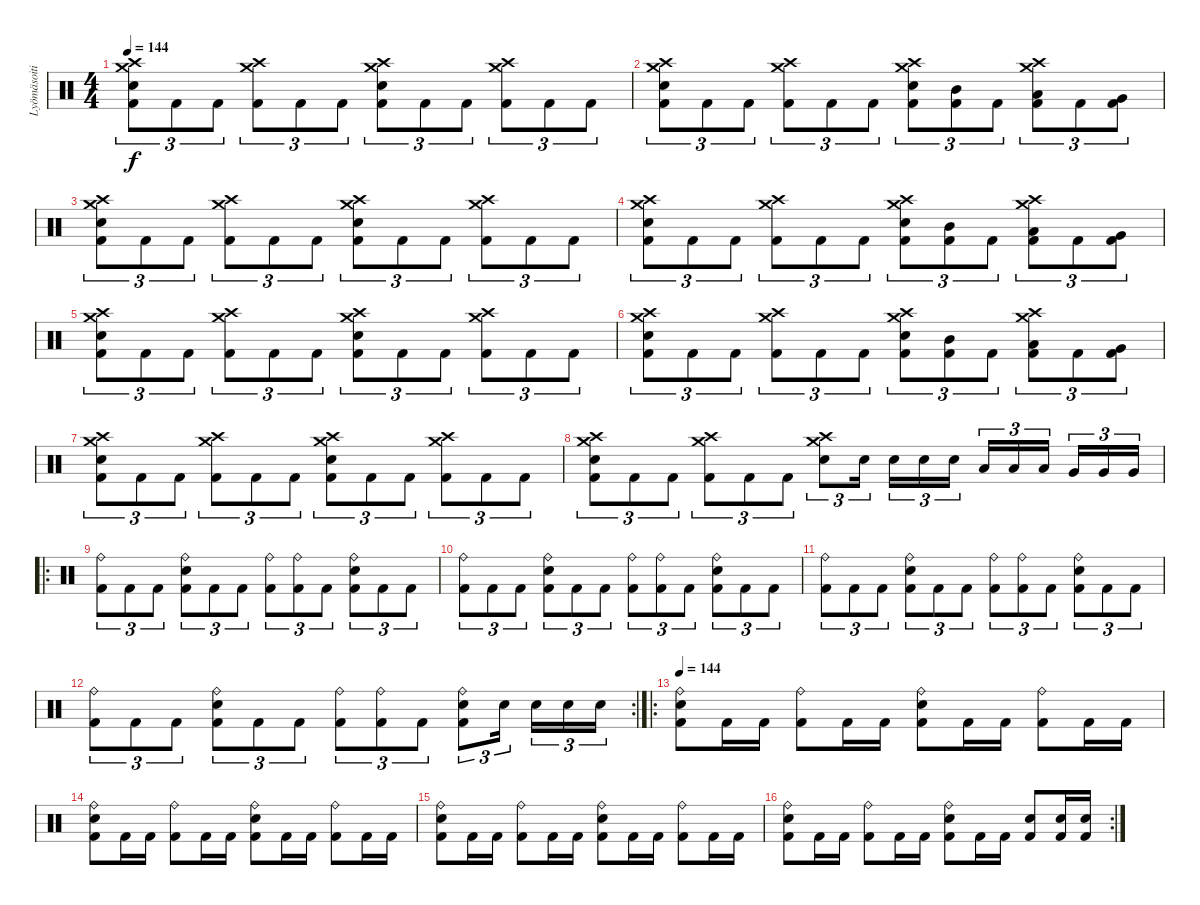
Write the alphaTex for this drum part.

\track ("Lyömäsoitin" "Lyömäsoiti") {instrument percussion}
\staff {score}
\articulation defaults
\ts (4 4)
\tempo 144
\clef neutral
\ks c
("Crash medium (hit)" "Crash high (hit)" "Snare (hit) 2" "Kick (hit) 2").8{tu (3 2) dy f} "Kick (hit) 2".8{tu (3 2)} "Kick (hit) 2".8{tu (3 2)} ("Crash medium (hit)" "Crash high (hit)" "Kick (hit) 2").8{tu (3 2)} "Kick (hit) 2".8{tu (3 2)} "Kick (hit) 2".8{tu (3 2)} ("Crash medium (hit)" "Crash high (hit)" "Snare (hit) 2" "Kick (hit) 2").8{tu (3 2)} "Kick (hit) 2".8{tu (3 2)} "Kick (hit) 2".8{tu (3 2)} ("Crash medium (hit)" "Crash high (hit)" "Kick (hit) 2").8{tu (3 2)} "Kick (hit) 2".8{tu (3 2)} "Kick (hit) 2".8{tu (3 2)} |
("Crash medium (hit)" "Crash high (hit)" "Snare (hit) 2" "Kick (hit) 2").8{tu (3 2)} "Kick (hit) 2".8{tu (3 2)} "Kick (hit) 2".8{tu (3 2)} ("Crash medium (hit)" "Crash high (hit)" "Kick (hit) 2").8{tu (3 2)} "Kick (hit) 2".8{tu (3 2)} "Kick (hit) 2".8{tu (3 2)} ("Crash medium (hit)" "Crash high (hit)" "Snare (hit) 2" "Kick (hit) 2").8{tu (3 2)} ("Mid Tom (hit)" "Kick (hit) 2").8{tu (3 2)} "Kick (hit) 2".8{tu (3 2)} ("Crash medium (hit)" "Crash high (hit)" "Low Tom (hit)" "Kick (hit) 2").8{tu (3 2)} "Kick (hit) 2".8{tu (3 2)} ("Very Low Tom (hit)" "Kick (hit) 2").8{tu (3 2)} |
("Crash medium (hit)" "Crash high (hit)" "Snare (hit) 2" "Kick (hit) 2").8{tu (3 2)} "Kick (hit) 2".8{tu (3 2)} "Kick (hit) 2".8{tu (3 2)} ("Crash medium (hit)" "Crash high (hit)" "Kick (hit) 2").8{tu (3 2)} "Kick (hit) 2".8{tu (3 2)} "Kick (hit) 2".8{tu (3 2)} ("Crash medium (hit)" "Crash high (hit)" "Snare (hit) 2" "Kick (hit) 2").8{tu (3 2)} "Kick (hit) 2".8{tu (3 2)} "Kick (hit) 2".8{tu (3 2)} ("Crash medium (hit)" "Crash high (hit)" "Kick (hit) 2").8{tu (3 2)} "Kick (hit) 2".8{tu (3 2)} "Kick (hit) 2".8{tu (3 2)} |
("Crash medium (hit)" "Crash high (hit)" "Snare (hit) 2" "Kick (hit) 2").8{tu (3 2)} "Kick (hit) 2".8{tu (3 2)} "Kick (hit) 2".8{tu (3 2)} ("Crash medium (hit)" "Crash high (hit)" "Kick (hit) 2").8{tu (3 2)} "Kick (hit) 2".8{tu (3 2)} "Kick (hit) 2".8{tu (3 2)} ("Crash medium (hit)" "Crash high (hit)" "Snare (hit) 2" "Kick (hit) 2").8{tu (3 2)} ("Mid Tom (hit)" "Kick (hit) 2").8{tu (3 2)} "Kick (hit) 2".8{tu (3 2)} ("Crash medium (hit)" "Crash high (hit)" "Low Tom (hit)" "Kick (hit) 2").8{tu (3 2)} "Kick (hit) 2".8{tu (3 2)} ("Very Low Tom (hit)" "Kick (hit) 2").8{tu (3 2)} |
("Crash medium (hit)" "Crash high (hit)" "Snare (hit) 2" "Kick (hit) 2").8{tu (3 2)} "Kick (hit) 2".8{tu (3 2)} "Kick (hit) 2".8{tu (3 2)} ("Crash medium (hit)" "Crash high (hit)" "Kick (hit) 2").8{tu (3 2)} "Kick (hit) 2".8{tu (3 2)} "Kick (hit) 2".8{tu (3 2)} ("Crash medium (hit)" "Crash high (hit)" "Snare (hit) 2" "Kick (hit) 2").8{tu (3 2)} "Kick (hit) 2".8{tu (3 2)} "Kick (hit) 2".8{tu (3 2)} ("Crash medium (hit)" "Crash high (hit)" "Kick (hit) 2").8{tu (3 2)} "Kick (hit) 2".8{tu (3 2)} "Kick (hit) 2".8{tu (3 2)} |
("Crash medium (hit)" "Crash high (hit)" "Snare (hit) 2" "Kick (hit) 2").8{tu (3 2)} "Kick (hit) 2".8{tu (3 2)} "Kick (hit) 2".8{tu (3 2)} ("Crash medium (hit)" "Crash high (hit)" "Kick (hit) 2").8{tu (3 2)} "Kick (hit) 2".8{tu (3 2)} "Kick (hit) 2".8{tu (3 2)} ("Crash medium (hit)" "Crash high (hit)" "Snare (hit) 2" "Kick (hit) 2").8{tu (3 2)} ("Mid Tom (hit)" "Kick (hit) 2").8{tu (3 2)} "Kick (hit) 2".8{tu (3 2)} ("Crash medium (hit)" "Crash high (hit)" "Low Tom (hit)" "Kick (hit) 2").8{tu (3 2)} "Kick (hit) 2".8{tu (3 2)} ("Very Low Tom (hit)" "Kick (hit) 2").8{tu (3 2)} |
("Crash medium (hit)" "Crash high (hit)" "Snare (hit) 2" "Kick (hit) 2").8{tu (3 2)} "Kick (hit) 2".8{tu (3 2)} "Kick (hit) 2".8{tu (3 2)} ("Crash medium (hit)" "Crash high (hit)" "Kick (hit) 2").8{tu (3 2)} "Kick (hit) 2".8{tu (3 2)} "Kick (hit) 2".8{tu (3 2)} ("Crash medium (hit)" "Crash high (hit)" "Snare (hit) 2" "Kick (hit) 2").8{tu (3 2)} "Kick (hit) 2".8{tu (3 2)} "Kick (hit) 2".8{tu (3 2)} ("Crash medium (hit)" "Crash high (hit)" "Kick (hit) 2").8{tu (3 2)} "Kick (hit) 2".8{tu (3 2)} "Kick (hit) 2".8{tu (3 2)} |
("Crash medium (hit)" "Crash high (hit)" "Snare (hit) 2" "Kick (hit) 2").8{tu (3 2)} "Kick (hit) 2".8{tu (3 2)} "Kick (hit) 2".8{tu (3 2)} ("Crash medium (hit)" "Crash high (hit)" "Kick (hit) 2").8{tu (3 2)} "Kick (hit) 2".8{tu (3 2)} "Kick (hit) 2".8{tu (3 2)} ("Crash medium (hit)" "Crash high (hit)" "Snare (hit) 2").8{tu (3 2)} "Snare (hit) 2".16{tu (3 2)} "Snare (hit) 2".16{tu (3 2)} "Snare (hit) 2".16{tu (3 2)} "Snare (hit) 2".16{tu (3 2)} "Low Tom (hit)".16{tu (3 2)} "Low Tom (hit)".16{tu (3 2)} "Low Tom (hit)".16{tu (3 2)} "Very Low Tom (hit)".16{tu (3 2)} "Very Low Tom (hit)".16{tu (3 2)} "Very Low Tom (hit)".16{tu (3 2)} |
\ro
("Ride (bell)" "Kick (hit) 2").8{tu (3 2)} "Kick (hit) 2".8{tu (3 2)} "Kick (hit) 2".8{tu (3 2)} ("Ride (bell)" "Snare (hit) 2" "Kick (hit) 2").8{tu (3 2)} "Kick (hit) 2".8{tu (3 2)} "Kick (hit) 2".8{tu (3 2)} ("Ride (bell)" "Kick (hit) 2").8{tu (3 2)} ("Ride (bell)" "Kick (hit) 2").8{tu (3 2)} "Kick (hit) 2".8{tu (3 2)} ("Ride (bell)" "Snare (hit) 2" "Kick (hit) 2").8{tu (3 2)} "Kick (hit) 2".8{tu (3 2)} "Kick (hit) 2".8{tu (3 2)} |
("Ride (bell)" "Kick (hit) 2").8{tu (3 2)} "Kick (hit) 2".8{tu (3 2)} "Kick (hit) 2".8{tu (3 2)} ("Ride (bell)" "Snare (hit) 2" "Kick (hit) 2").8{tu (3 2)} "Kick (hit) 2".8{tu (3 2)} "Kick (hit) 2".8{tu (3 2)} ("Ride (bell)" "Kick (hit) 2").8{tu (3 2)} ("Ride (bell)" "Kick (hit) 2").8{tu (3 2)} "Kick (hit) 2".8{tu (3 2)} ("Ride (bell)" "Snare (hit) 2" "Kick (hit) 2").8{tu (3 2)} "Kick (hit) 2".8{tu (3 2)} "Kick (hit) 2".8{tu (3 2)} |
("Ride (bell)" "Kick (hit) 2").8{tu (3 2)} "Kick (hit) 2".8{tu (3 2)} "Kick (hit) 2".8{tu (3 2)} ("Ride (bell)" "Snare (hit) 2" "Kick (hit) 2").8{tu (3 2)} "Kick (hit) 2".8{tu (3 2)} "Kick (hit) 2".8{tu (3 2)} ("Ride (bell)" "Kick (hit) 2").8{tu (3 2)} ("Ride (bell)" "Kick (hit) 2").8{tu (3 2)} "Kick (hit) 2".8{tu (3 2)} ("Ride (bell)" "Snare (hit) 2" "Kick (hit) 2").8{tu (3 2)} "Kick (hit) 2".8{tu (3 2)} "Kick (hit) 2".8{tu (3 2)} |
\rc 2
("Ride (bell)" "Kick (hit) 2").8{tu (3 2)} "Kick (hit) 2".8{tu (3 2)} "Kick (hit) 2".8{tu (3 2)} ("Ride (bell)" "Snare (hit) 2" "Kick (hit) 2").8{tu (3 2)} "Kick (hit) 2".8{tu (3 2)} "Kick (hit) 2".8{tu (3 2)} ("Ride (bell)" "Kick (hit) 2").8{tu (3 2)} ("Ride (bell)" "Kick (hit) 2").8{tu (3 2)} "Kick (hit) 2".8{tu (3 2)} ("Ride (bell)" "Snare (hit) 2" "Kick (hit) 2").8{tu (3 2)} "Snare (hit) 2".16{tu (3 2)} "Snare (hit) 2".16{tu (3 2)} "Snare (hit) 2".16{tu (3 2)} "Snare (hit) 2".16{tu (3 2)} |
\ro
\tempo 144
("Ride (bell)" "Snare (hit) 2" "Kick (hit) 2").8 "Kick (hit) 2".16 "Kick (hit) 2".16 ("Ride (bell)" "Kick (hit) 2").8 "Kick (hit) 2".16 "Kick (hit) 2".16 ("Ride (bell)" "Snare (hit) 2" "Kick (hit) 2").8 "Kick (hit) 2".16 "Kick (hit) 2".16 ("Ride (bell)" "Kick (hit) 2").8 "Kick (hit) 2".16 "Kick (hit) 2".16 |
("Ride (bell)" "Snare (hit) 2" "Kick (hit) 2").8 "Kick (hit) 2".16 "Kick (hit) 2".16 ("Ride (bell)" "Kick (hit) 2").8 "Kick (hit) 2".16 "Kick (hit) 2".16 ("Ride (bell)" "Snare (hit) 2" "Kick (hit) 2").8 "Kick (hit) 2".16 "Kick (hit) 2".16 ("Ride (bell)" "Kick (hit) 2").8 "Kick (hit) 2".16 "Kick (hit) 2".16 |
("Ride (bell)" "Snare (hit) 2" "Kick (hit) 2").8 "Kick (hit) 2".16 "Kick (hit) 2".16 ("Ride (bell)" "Kick (hit) 2").8 "Kick (hit) 2".16 "Kick (hit) 2".16 ("Ride (bell)" "Snare (hit) 2" "Kick (hit) 2").8 "Kick (hit) 2".16 "Kick (hit) 2".16 ("Ride (bell)" "Kick (hit) 2").8 "Kick (hit) 2".16 "Kick (hit) 2".16 |
\rc 2
("Ride (bell)" "Snare (hit) 2" "Kick (hit) 2").8 "Kick (hit) 2".16 "Kick (hit) 2".16 ("Ride (bell)" "Kick (hit) 2").8 "Kick (hit) 2".16 "Kick (hit) 2".16 ("Ride (bell)" "Snare (hit) 2" "Kick (hit) 2").8 "Kick (hit) 2".16 "Kick (hit) 2".16 ("Snare (hit) 2" "Kick (hit) 2").8 ("Snare (hit) 2" "Kick (hit) 2").16 ("Snare (hit) 2" "Kick (hit) 2").16
